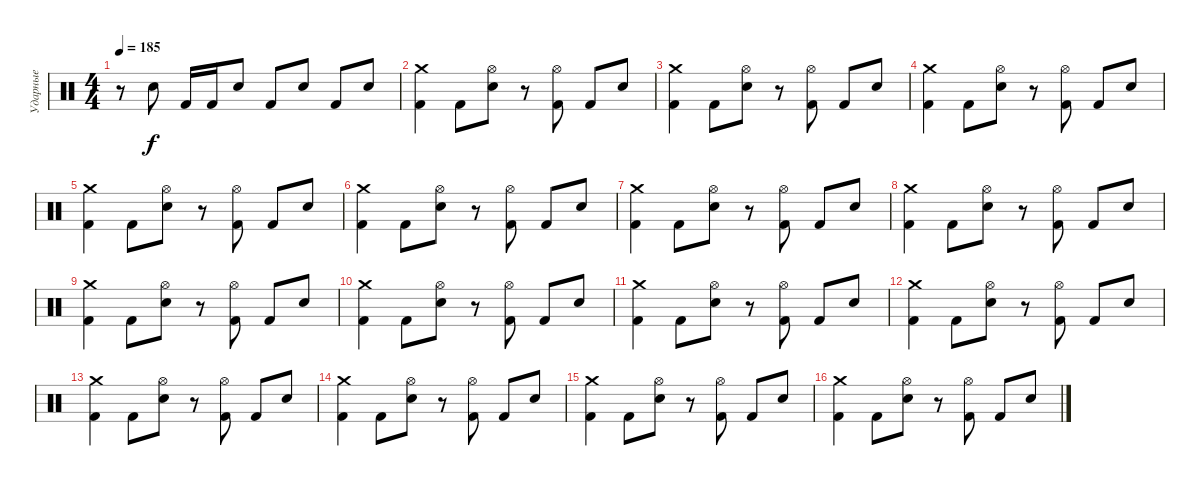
\track ("Ударные" "Ударные") {instrument percussion}
\staff {score}
\articulation defaults
\ts (4 4)
\tempo 185
\clef neutral
\ks c
r.8{dy f} "Electric Snare (hit)".8 "Kick (hit) 2".16 "Kick (hit) 2".16 "Electric Snare (hit)".8 "Kick (hit) 2".8 "Electric Snare (hit)".8 "Kick (hit) 2".8 "Electric Snare (hit)".8 |
("Crash medium (hit)" "Kick (hit) 2").4 "Kick (hit) 2".8 ("Hi-Hat (open)" "Electric Snare (hit)").8 r.8 ("Hi-Hat (open)" "Kick (hit) 2").8 "Kick (hit) 2".8 "Electric Snare (hit)".8 |
("Crash medium (hit)" "Kick (hit) 2").4 "Kick (hit) 2".8 ("Hi-Hat (open)" "Electric Snare (hit)").8 r.8 ("Hi-Hat (open)" "Kick (hit) 2").8 "Kick (hit) 2".8 "Electric Snare (hit)".8 |
("Crash medium (hit)" "Kick (hit) 2").4 "Kick (hit) 2".8 ("Hi-Hat (open)" "Electric Snare (hit)").8 r.8 ("Hi-Hat (open)" "Kick (hit) 2").8 "Kick (hit) 2".8 "Electric Snare (hit)".8 |
("Crash medium (hit)" "Kick (hit) 2").4 "Kick (hit) 2".8 ("Hi-Hat (open)" "Electric Snare (hit)").8 r.8 ("Hi-Hat (open)" "Kick (hit) 2").8 "Kick (hit) 2".8 "Electric Snare (hit)".8 |
("Crash medium (hit)" "Kick (hit) 2").4 "Kick (hit) 2".8 ("Hi-Hat (open)" "Electric Snare (hit)").8 r.8 ("Hi-Hat (open)" "Kick (hit) 2").8 "Kick (hit) 2".8 "Electric Snare (hit)".8 |
("Crash medium (hit)" "Kick (hit) 2").4 "Kick (hit) 2".8 ("Hi-Hat (open)" "Electric Snare (hit)").8 r.8 ("Hi-Hat (open)" "Kick (hit) 2").8 "Kick (hit) 2".8 "Electric Snare (hit)".8 |
("Crash medium (hit)" "Kick (hit) 2").4 "Kick (hit) 2".8 ("Hi-Hat (open)" "Electric Snare (hit)").8 r.8 ("Hi-Hat (open)" "Kick (hit) 2").8 "Kick (hit) 2".8 "Electric Snare (hit)".8 |
("Crash medium (hit)" "Kick (hit) 2").4 "Kick (hit) 2".8 ("Hi-Hat (open)" "Electric Snare (hit)").8 r.8 ("Hi-Hat (open)" "Kick (hit) 2").8 "Kick (hit) 2".8 "Electric Snare (hit)".8 |
("Crash medium (hit)" "Kick (hit) 2").4 "Kick (hit) 2".8 ("Hi-Hat (open)" "Electric Snare (hit)").8 r.8 ("Hi-Hat (open)" "Kick (hit) 2").8 "Kick (hit) 2".8 "Electric Snare (hit)".8 |
("Crash medium (hit)" "Kick (hit) 2").4 "Kick (hit) 2".8 ("Hi-Hat (open)" "Electric Snare (hit)").8 r.8 ("Hi-Hat (open)" "Kick (hit) 2").8 "Kick (hit) 2".8 "Electric Snare (hit)".8 |
("Crash medium (hit)" "Kick (hit) 2").4 "Kick (hit) 2".8 ("Hi-Hat (open)" "Electric Snare (hit)").8 r.8 ("Hi-Hat (open)" "Kick (hit) 2").8 "Kick (hit) 2".8 "Electric Snare (hit)".8 |
("Crash medium (hit)" "Kick (hit) 2").4 "Kick (hit) 2".8 ("Hi-Hat (open)" "Electric Snare (hit)").8 r.8 ("Hi-Hat (open)" "Kick (hit) 2").8 "Kick (hit) 2".8 "Electric Snare (hit)".8 |
("Crash medium (hit)" "Kick (hit) 2").4 "Kick (hit) 2".8 ("Hi-Hat (open)" "Electric Snare (hit)").8 r.8 ("Hi-Hat (open)" "Kick (hit) 2").8 "Kick (hit) 2".8 "Electric Snare (hit)".8 |
("Crash medium (hit)" "Kick (hit) 2").4 "Kick (hit) 2".8 ("Hi-Hat (open)" "Electric Snare (hit)").8 r.8 ("Hi-Hat (open)" "Kick (hit) 2").8 "Kick (hit) 2".8 "Electric Snare (hit)".8 |
("Crash medium (hit)" "Kick (hit) 2").4 "Kick (hit) 2".8 ("Hi-Hat (open)" "Electric Snare (hit)").8 r.8 ("Hi-Hat (open)" "Kick (hit) 2").8 "Kick (hit) 2".8 "Electric Snare (hit)".8
